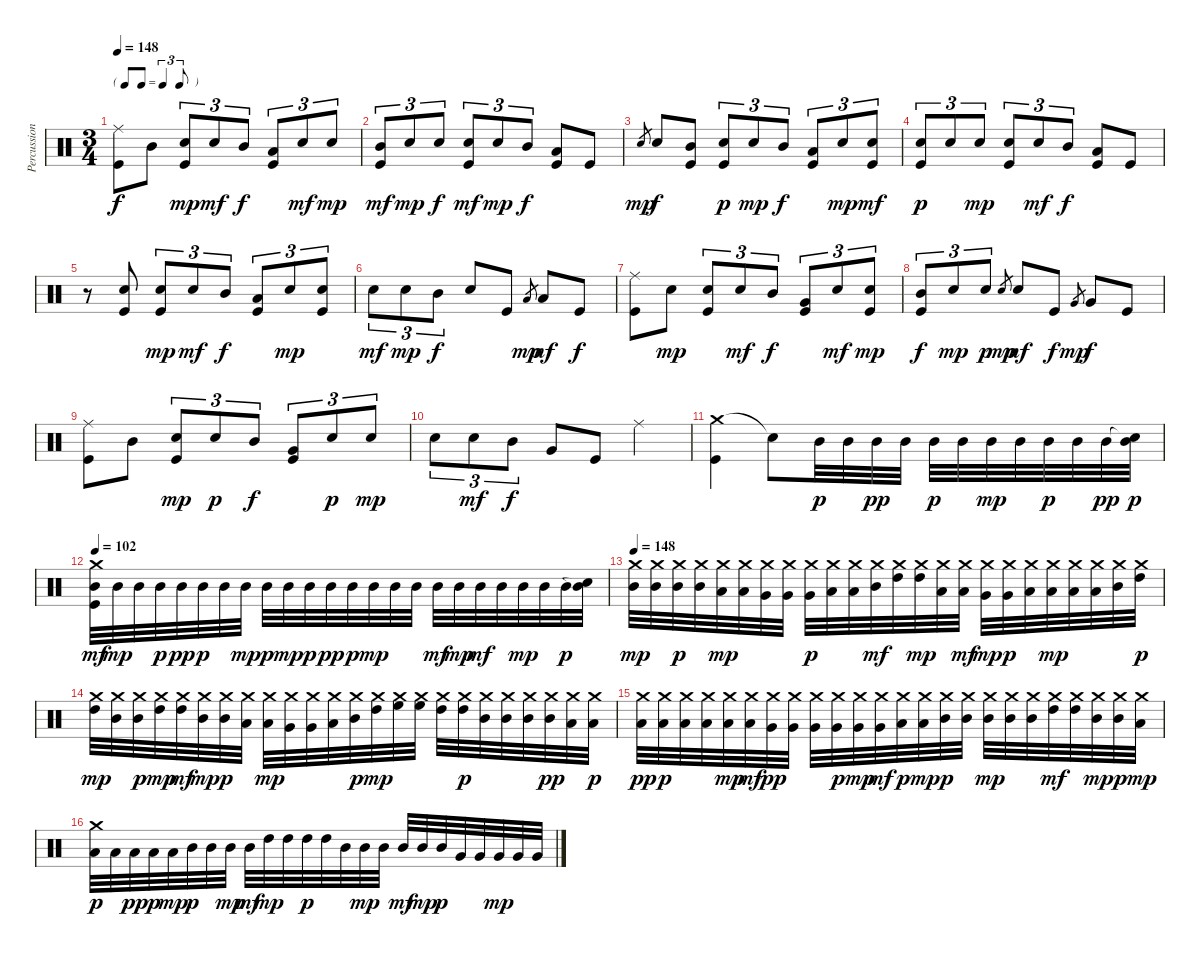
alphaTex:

\track ("Percussions" "Percussion") {instrument percussion}
\staff {score}
\articulation defaults
\ts (3 4)
\tf triplet8th
\tempo 148
\clef neutral
\ks c
("Ride (middle)" "Kick (hit)").8{dy f} "Mid Tom (hit)".8 ("Electric Snare (hit)" "Kick (hit)").8{tu (3 2) dy mp} "Electric Snare (hit)".8{tu (3 2) dy mf} "Mid Tom (hit)".8{tu (3 2) dy f} ("Low Tom (hit)" "Kick (hit)").8{tu (3 2)} "Electric Snare (hit)".8{tu (3 2) dy mf} "Electric Snare (hit)".8{tu (3 2) dy mp} |
("Mid Tom (hit)" "Kick (hit)").8{tu (3 2) dy mf} "Electric Snare (hit)".8{tu (3 2) dy mp} "Electric Snare (hit)".8{tu (3 2) dy f} ("Electric Snare (hit)" "Kick (hit)").8{tu (3 2) dy mf} "Electric Snare (hit)".8{tu (3 2) dy mp} "Mid Tom (hit)".8{tu (3 2) dy f} ("Low Tom (hit)" "Kick (hit)").8 "Kick (hit)".8 |
"Electric Snare (hit)".8{gr dy mp} "Electric Snare (hit)".8{dy f} ("Mid Tom (hit)" "Kick (hit)").8 ("Electric Snare (hit)" "Kick (hit)").8{tu (3 2) dy p} "Electric Snare (hit)".8{tu (3 2) dy mp} "Mid Tom (hit)".8{tu (3 2) dy f} ("Low Tom (hit)" "Kick (hit)").8{tu (3 2)} "Electric Snare (hit)".8{tu (3 2) dy mp} ("Electric Snare (hit)" "Kick (hit)").8{tu (3 2) dy mf} |
("Electric Snare (hit)" "Kick (hit)").8{tu (3 2) dy p} "Electric Snare (hit)".8{tu (3 2)} "Electric Snare (hit)".8{tu (3 2) dy mp} ("Electric Snare (hit)" "Kick (hit)").8{tu (3 2)} "Electric Snare (hit)".8{tu (3 2) dy mf} "Mid Tom (hit)".8{tu (3 2) dy f} ("Low Tom (hit)" "Kick (hit)").8 "Kick (hit)".8 |
r.8 ("Electric Snare (hit)" "Kick (hit)").8 ("Electric Snare (hit)" "Kick (hit)").8{tu (3 2) dy mp} "Electric Snare (hit)".8{tu (3 2) dy mf} "Mid Tom (hit)".8{tu (3 2) dy f} ("Low Tom (hit)" "Kick (hit)").8{tu (3 2)} "Electric Snare (hit)".8{tu (3 2) dy mp} ("Electric Snare (hit)" "Kick (hit)").8{tu (3 2)} |
"Electric Snare (hit)".8{tu (3 2) dy mf} "Electric Snare (hit)".8{tu (3 2) dy mp} "Mid Tom (hit)".8{tu (3 2) dy f} "Electric Snare (hit)".8 "Kick (hit)".8 "Low Tom (hit)".8{gr dy mp} "Low Tom (hit)".8{dy mf} "Kick (hit)".8{dy f} |
("Ride (middle)" "Kick (hit)").8 "Electric Snare (hit)".8{dy mp} ("Electric Snare (hit)" "Kick (hit)").8{tu (3 2)} "Electric Snare (hit)".8{tu (3 2) dy mf} "Mid Tom (hit)".8{tu (3 2) dy f} ("Very Low Tom (hit)" "Kick (hit)").8{tu (3 2)} "Electric Snare (hit)".8{tu (3 2) dy mf} ("Electric Snare (hit)" "Kick (hit)").8{tu (3 2) dy mp} |
("Mid Tom (hit)" "Kick (hit)").8{tu (3 2) dy f} "Electric Snare (hit)".8{tu (3 2) dy mp} "Electric Snare (hit)".8{tu (3 2) dy p} "Electric Snare (hit)".8{gr dy mp} "Electric Snare (hit)".8{dy mf} "Kick (hit)".8{dy f} "Very Low Tom (hit)".8{gr dy mp} "Very Low Tom (hit)".8{dy f} "Kick (hit)".8 |
("Ride (middle)" "Kick (hit)").8 "Mid Tom (hit)".8 ("Electric Snare (hit)" "Kick (hit)").8{tu (3 2) dy mp} "Electric Snare (hit)".8{tu (3 2) dy p} "Mid Tom (hit)".8{tu (3 2) dy f} ("Very Low Tom (hit)" "Kick (hit)").8{tu (3 2)} "Electric Snare (hit)".8{tu (3 2) dy p} "Electric Snare (hit)".8{tu (3 2) dy mp} |
"Electric Snare (hit)".8{tu (3 2)} "Electric Snare (hit)".8{tu (3 2) dy mf} "Mid Tom (hit)".8{tu (3 2) dy f} "Very Low Tom (hit)".8 "Kick (hit)".8 "Ride (middle)".4 |
("Crash medium (hit)" "Kick (hit)").4 "Snare (hit)"{t}.8 "Mid Tom (hit)".32{dy p} "Mid Tom (hit)".32 "Mid Tom (hit)".32{dy pp} "Mid Tom (hit)".32 "Mid Tom (hit)".32{dy p} "Mid Tom (hit)".32 "Mid Tom (hit)".32{dy mp} "Mid Tom (hit)".32 "Mid Tom (hit)".32{dy p} "Mid Tom (hit)".32 "Mid Tom (hit)".32{dy pp} ("Snare (hit)"{t} "Mid Tom (hit)").32{dy p} |
\tempo 102
("Crash medium (hit)" "Mid Tom (hit)" "Kick (hit)").32{dy mf} "Mid Tom (hit)".32{dy mp} "Mid Tom (hit)".32 "Mid Tom (hit)".32{dy p} "Mid Tom (hit)".32{dy pp} "Mid Tom (hit)".32{dy p} "Mid Tom (hit)".32 "Mid Tom (hit)".32{dy mp} "Mid Tom (hit)".32{dy p} "Mid Tom (hit)".32{dy mp} "Mid Tom (hit)".32{dy p} "Mid Tom (hit)".32{dy pp} "Mid Tom (hit)".32{dy p} "Mid Tom (hit)".32{dy mp} "Mid Tom (hit)".32 "Mid Tom (hit)".32 "Mid Tom (hit)".32{dy mf} "Mid Tom (hit)".32{dy mp} "Mid Tom (hit)".32{dy mf} "Mid Tom (hit)".32 "Mid Tom (hit)".32{dy mp} "Mid Tom (hit)".32 "Mid Tom (hit)".32{dy p} ("Snare (hit)"{t} "Mid Tom (hit)").32 |
\tempo 148
("Crash medium (hit)" "Mid Tom (hit)").32{dy mp} ("Crash medium (hit)" "Mid Tom (hit)").32 ("Crash medium (hit)" "Mid Tom (hit)").32{dy p} ("Crash medium (hit)" "Mid Tom (hit)").32 ("Crash medium (hit)" "Low Tom (hit)").32{dy mp} ("Crash medium (hit)" "Low Tom (hit)").32 ("Crash medium (hit)" "Very Low Tom (hit)").32 ("Crash medium (hit)" "Very Low Tom (hit)").32 ("Crash medium (hit)" "Very Low Tom (hit)").32{dy p} ("Crash medium (hit)" "Low Tom (hit)").32 ("Crash medium (hit)" "Low Tom (hit)").32 ("Crash medium (hit)" "Mid Tom (hit)").32{dy mf} ("Crash medium (hit)" "High Tom (hit)").32 ("Crash medium (hit)" "High Tom (hit)").32{dy mp} ("Crash medium (hit)" "Low Tom (hit)").32 ("Crash medium (hit)" "Low Tom (hit)").32{dy mf} ("Crash medium (hit)" "Very Low Tom (hit)").32{dy mp} ("Crash medium (hit)" "Very Low Tom (hit)").32{dy p} ("Crash medium (hit)" "Low Floor Tom (hit)").32 ("Crash medium (hit)" "Low Floor Tom (hit)").32{dy mp} ("Crash medium (hit)" "Low Tom (hit)").32 ("Crash medium (hit)" "Low Tom (hit)").32 ("Crash medium (hit)" "Mid Tom (hit)").32 ("Crash medium (hit)" "High Tom (hit)").32{dy p} |
("Crash medium (hit)" "High Tom (hit)").32{dy mp} ("Crash medium (hit)" "Mid Tom (hit)").32 ("Crash medium (hit)" "Mid Tom (hit)").32{dy p} ("Crash medium (hit)" "High Tom (hit)").32{dy mp} ("Crash medium (hit)" "High Tom (hit)").32{dy mf} ("Crash medium (hit)" "Mid Tom (hit)").32{dy mp} ("Crash medium (hit)" "Mid Tom (hit)").32{dy p} ("Crash medium (hit)" "Low Tom (hit)").32 ("Crash medium (hit)" "Low Tom (hit)").32{dy mp} ("Crash medium (hit)" "Very Low Tom (hit)").32 ("Crash medium (hit)" "Very Low Tom (hit)").32 ("Crash medium (hit)" "Low Tom (hit)").32 ("Crash medium (hit)" "Mid Tom (hit)").32{dy p} ("Crash medium (hit)" "High Tom (hit)").32{dy mp} ("Crash medium (hit)" "High Floor Tom (hit)").32 ("Crash medium (hit)" "High Floor Tom (hit)").32 ("Crash medium (hit)" "High Tom (hit)").32 ("Crash medium (hit)" "High Tom (hit)").32{dy p} ("Crash medium (hit)" "Mid Tom (hit)").32 ("Crash medium (hit)" "Mid Tom (hit)").32 ("Crash medium (hit)" "Mid Tom (hit)").32 ("Crash medium (hit)" "Mid Tom (hit)").32{dy pp} ("Crash medium (hit)" "Low Tom (hit)").32 ("Crash medium (hit)" "Low Tom (hit)").32{dy p} |
("Crash medium (hit)" "Low Tom (hit)").32{dy pp} ("Crash medium (hit)" "Low Tom (hit)").32{dy p} ("Crash medium (hit)" "Low Tom (hit)").32 ("Crash medium (hit)" "Low Tom (hit)").32 ("Crash medium (hit)" "Low Tom (hit)").32{dy mp} ("Crash medium (hit)" "Low Tom (hit)").32{dy mf} ("Crash medium (hit)" "Very Low Tom (hit)").32{dy pp} ("Crash medium (hit)" "Very Low Tom (hit)").32 ("Crash medium (hit)" "Very Low Tom (hit)").32 ("Crash medium (hit)" "Very Low Tom (hit)").32{dy p} ("Crash medium (hit)" "Very Low Tom (hit)").32{dy mp} ("Crash medium (hit)" "Very Low Tom (hit)").32{dy mf} ("Crash medium (hit)" "Low Tom (hit)").32{dy p} ("Crash medium (hit)" "Low Tom (hit)").32{dy mp} ("Crash medium (hit)" "Mid Tom (hit)").32{dy p} ("Crash medium (hit)" "Mid Tom (hit)").32 ("Crash medium (hit)" "Mid Tom (hit)").32{dy mp} ("Crash medium (hit)" "Mid Tom (hit)").32 ("Crash medium (hit)" "Mid Tom (hit)").32 ("Crash medium (hit)" "High Tom (hit)").32{dy mf} ("Crash medium (hit)" "High Tom (hit)").32 ("Crash medium (hit)" "Mid Tom (hit)").32{dy mp} ("Crash medium (hit)" "Mid Tom (hit)").32{dy p} ("Crash medium (hit)" "Low Tom (hit)").32{dy mp} |
("Crash medium (hit)" "Low Tom (hit)").32{dy p} "Low Tom (hit)".32 "Low Tom (hit)".32{dy pp} "Low Tom (hit)".32{dy p} "Low Tom (hit)".32{dy mp} "Mid Tom (hit)".32{dy p} "Mid Tom (hit)".32 "Mid Tom (hit)".32{dy mp} "Mid Tom (hit)".32{dy mf} "High Tom (hit)".32{dy mp} "High Tom (hit)".32 "High Tom (hit)".32{dy p} "High Tom (hit)".32 "Mid Tom (hit)".32 "Mid Tom (hit)".32{dy mp} "Mid Tom (hit)".32 "Mid Tom (hit)".32{dy mf} "Mid Tom (hit)".32{dy mp} "Mid Tom (hit)".32{dy p} "Very Low Tom (hit)".32 "Very Low Tom (hit)".32 "Very Low Tom (hit)".32{dy mp} "Very Low Tom (hit)".32 "Very Low Tom (hit)".32
